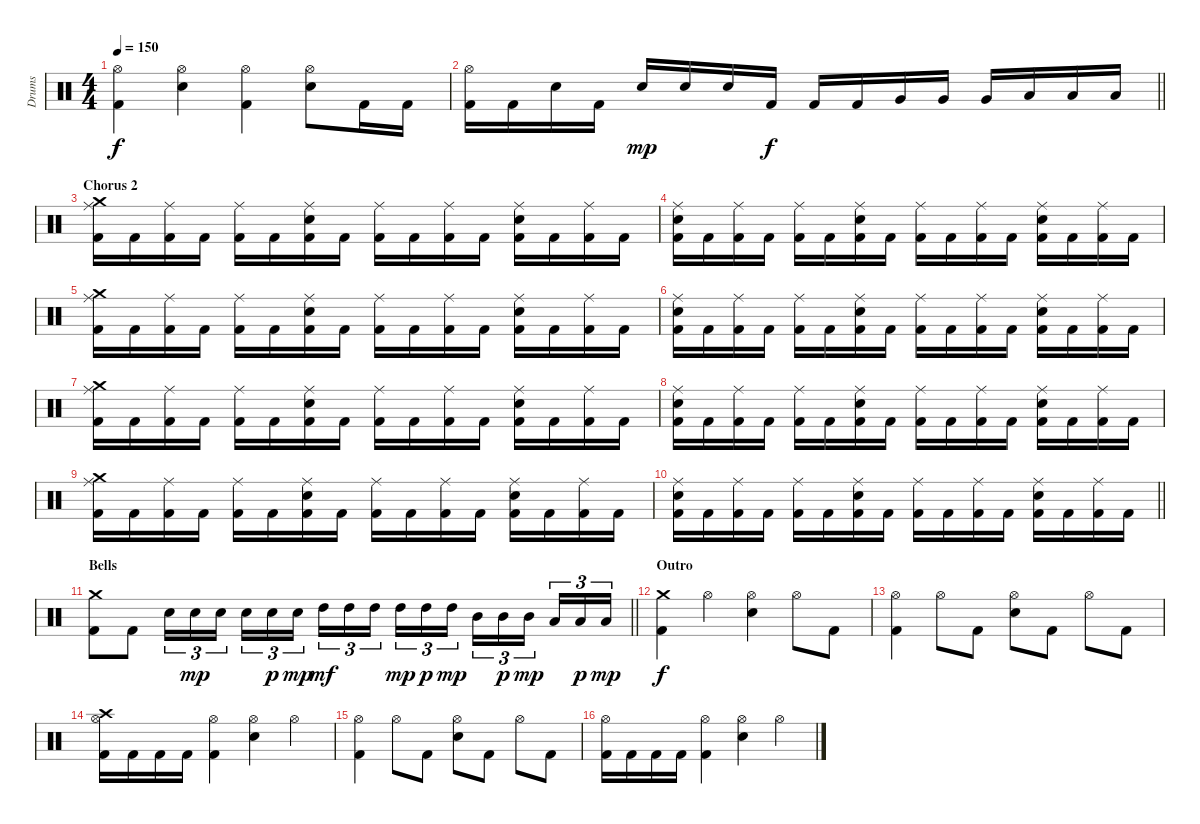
\track ("Drums" "Drums") {instrument percussion}
\staff {score}
\articulation defaults
\ts (4 4)
\tempo 150
\clef neutral
\ks c
("Hi-Hat (open)" "Kick (hit) 2").4{dy f} ("Hi-Hat (open)" "Electric Snare (hit)").4 ("Hi-Hat (open)" "Kick (hit) 2").4 ("Hi-Hat (open)" "Electric Snare (hit)").8 "Kick (hit) 2".16 "Kick (hit) 2".16 |
\barLineRight lightlight
("Hi-Hat (open)" "Kick (hit) 2").16 "Kick (hit) 2".16 "Electric Snare (hit)".16 "Kick (hit) 2".16 "Electric Snare (hit)".16{dy mp} "Electric Snare (hit)".16 "Electric Snare (hit)".16 "Kick (hit) 2".16{dy f} "Kick (hit) 2".16 "Kick (hit) 2".16 "Very Low Tom (hit)".16 "Very Low Tom (hit)".16 "Very Low Tom (hit)".16 "Low Floor Tom (hit)".16 "Low Floor Tom (hit)".16 "Low Floor Tom (hit)".16 |
\section ("" "Chorus 2")
("Crash medium (hit)" "Ride (middle)" "Kick (hit) 2").16 "Kick (hit) 2".16 ("Ride (middle)" "Kick (hit) 2").16 "Kick (hit) 2".16 ("Ride (middle)" "Kick (hit) 2").16 "Kick (hit) 2".16 ("Ride (middle)" "Electric Snare (hit)" "Kick (hit) 2").16 "Kick (hit) 2".16 ("Ride (middle)" "Kick (hit) 2").16 "Kick (hit) 2".16 ("Ride (middle)" "Kick (hit) 2").16 "Kick (hit) 2".16 ("Ride (middle)" "Electric Snare (hit)" "Kick (hit) 2").16 "Kick (hit) 2".16 ("Ride (middle)" "Kick (hit) 2").16 "Kick (hit) 2".16 |
("Ride (middle)" "Electric Snare (hit)" "Kick (hit) 2").16 "Kick (hit) 2".16 ("Ride (middle)" "Kick (hit) 2").16 "Kick (hit) 2".16 ("Ride (middle)" "Kick (hit) 2").16 "Kick (hit) 2".16 ("Ride (middle)" "Electric Snare (hit)" "Kick (hit) 2").16 "Kick (hit) 2".16 ("Ride (middle)" "Kick (hit) 2").16 "Kick (hit) 2".16 ("Ride (middle)" "Kick (hit) 2").16 "Kick (hit) 2".16 ("Ride (middle)" "Electric Snare (hit)" "Kick (hit) 2").16 "Kick (hit) 2".16 ("Ride (middle)" "Kick (hit) 2").16 "Kick (hit) 2".16 |
("Crash medium (hit)" "Ride (middle)" "Kick (hit) 2").16 "Kick (hit) 2".16 ("Ride (middle)" "Kick (hit) 2").16 "Kick (hit) 2".16 ("Ride (middle)" "Kick (hit) 2").16 "Kick (hit) 2".16 ("Ride (middle)" "Electric Snare (hit)" "Kick (hit) 2").16 "Kick (hit) 2".16 ("Ride (middle)" "Kick (hit) 2").16 "Kick (hit) 2".16 ("Ride (middle)" "Kick (hit) 2").16 "Kick (hit) 2".16 ("Ride (middle)" "Electric Snare (hit)" "Kick (hit) 2").16 "Kick (hit) 2".16 ("Ride (middle)" "Kick (hit) 2").16 "Kick (hit) 2".16 |
("Ride (middle)" "Electric Snare (hit)" "Kick (hit) 2").16 "Kick (hit) 2".16 ("Ride (middle)" "Kick (hit) 2").16 "Kick (hit) 2".16 ("Ride (middle)" "Kick (hit) 2").16 "Kick (hit) 2".16 ("Ride (middle)" "Electric Snare (hit)" "Kick (hit) 2").16 "Kick (hit) 2".16 ("Ride (middle)" "Kick (hit) 2").16 "Kick (hit) 2".16 ("Ride (middle)" "Kick (hit) 2").16 "Kick (hit) 2".16 ("Ride (middle)" "Electric Snare (hit)" "Kick (hit) 2").16 "Kick (hit) 2".16 ("Ride (middle)" "Kick (hit) 2").16 "Kick (hit) 2".16 |
("Crash medium (hit)" "Ride (middle)" "Kick (hit) 2").16 "Kick (hit) 2".16 ("Ride (middle)" "Kick (hit) 2").16 "Kick (hit) 2".16 ("Ride (middle)" "Kick (hit) 2").16 "Kick (hit) 2".16 ("Ride (middle)" "Electric Snare (hit)" "Kick (hit) 2").16 "Kick (hit) 2".16 ("Ride (middle)" "Kick (hit) 2").16 "Kick (hit) 2".16 ("Ride (middle)" "Kick (hit) 2").16 "Kick (hit) 2".16 ("Ride (middle)" "Electric Snare (hit)" "Kick (hit) 2").16 "Kick (hit) 2".16 ("Ride (middle)" "Kick (hit) 2").16 "Kick (hit) 2".16 |
("Ride (middle)" "Electric Snare (hit)" "Kick (hit) 2").16 "Kick (hit) 2".16 ("Ride (middle)" "Kick (hit) 2").16 "Kick (hit) 2".16 ("Ride (middle)" "Kick (hit) 2").16 "Kick (hit) 2".16 ("Ride (middle)" "Electric Snare (hit)" "Kick (hit) 2").16 "Kick (hit) 2".16 ("Ride (middle)" "Kick (hit) 2").16 "Kick (hit) 2".16 ("Ride (middle)" "Kick (hit) 2").16 "Kick (hit) 2".16 ("Ride (middle)" "Electric Snare (hit)" "Kick (hit) 2").16 "Kick (hit) 2".16 ("Ride (middle)" "Kick (hit) 2").16 "Kick (hit) 2".16 |
("Crash medium (hit)" "Ride (middle)" "Kick (hit) 2").16 "Kick (hit) 2".16 ("Ride (middle)" "Kick (hit) 2").16 "Kick (hit) 2".16 ("Ride (middle)" "Kick (hit) 2").16 "Kick (hit) 2".16 ("Ride (middle)" "Electric Snare (hit)" "Kick (hit) 2").16 "Kick (hit) 2".16 ("Ride (middle)" "Kick (hit) 2").16 "Kick (hit) 2".16 ("Ride (middle)" "Kick (hit) 2").16 "Kick (hit) 2".16 ("Ride (middle)" "Electric Snare (hit)" "Kick (hit) 2").16 "Kick (hit) 2".16 ("Ride (middle)" "Kick (hit) 2").16 "Kick (hit) 2".16 |
\barLineRight lightlight
("Ride (middle)" "Electric Snare (hit)" "Kick (hit) 2").16 "Kick (hit) 2".16 ("Ride (middle)" "Kick (hit) 2").16 "Kick (hit) 2".16 ("Ride (middle)" "Kick (hit) 2").16 "Kick (hit) 2".16 ("Ride (middle)" "Electric Snare (hit)" "Kick (hit) 2").16 "Kick (hit) 2".16 ("Ride (middle)" "Kick (hit) 2").16 "Kick (hit) 2".16 ("Ride (middle)" "Kick (hit) 2").16 "Kick (hit) 2".16 ("Ride (middle)" "Electric Snare (hit)" "Kick (hit) 2").16 "Kick (hit) 2".16 ("Ride (middle)" "Kick (hit) 2").16 "Kick (hit) 2".16 |
\section ("" "Bells")
\barLineRight lightlight
("Crash medium (hit)" "Kick (hit) 2").8 "Kick (hit) 2".8 "Electric Snare (hit)".16{tu (3 2)} "Electric Snare (hit)".16{tu (3 2) dy mp} "Electric Snare (hit)".16{tu (3 2) beam splitsecondary} "Electric Snare (hit)".16{tu (3 2)} "Electric Snare (hit)".16{tu (3 2) dy p} "Electric Snare (hit)".16{tu (3 2) dy mp} "High Tom (hit)".16{tu (3 2) dy mf} "High Tom (hit)".16{tu (3 2)} "High Tom (hit)".16{tu (3 2) beam splitsecondary} "High Tom (hit)".16{tu (3 2) dy mp} "High Tom (hit)".16{tu (3 2) dy p} "High Tom (hit)".16{tu (3 2) dy mp} "Mid Tom (hit)".16{tu (3 2)} "Mid Tom (hit)".16{tu (3 2) dy p} "Mid Tom (hit)".16{tu (3 2) dy mp beam splitsecondary} "Low Tom (hit)".16{tu (3 2)} "Low Tom (hit)".16{tu (3 2) dy p} "Low Tom (hit)".16{tu (3 2) dy mp} |
\section ("" "Outro")
("Crash medium (hit)" "Kick (hit) 2").4{dy f} "Hi-Hat (open)".4 ("Hi-Hat (open)" "Electric Snare (hit)").4 "Hi-Hat (open)".8 "Kick (hit) 2".8 |
("Hi-Hat (open)" "Kick (hit) 2").4 "Hi-Hat (open)".8 "Kick (hit) 2".8 ("Hi-Hat (open)" "Electric Snare (hit)").8 "Kick (hit) 2".8 "Hi-Hat (open)".8 "Kick (hit) 2".8 |
("Crash high (hit)" "Hi-Hat (open)" "Kick (hit) 2").16 "Kick (hit) 2".16 "Kick (hit) 2".16 "Kick (hit) 2".16 ("Hi-Hat (open)" "Kick (hit) 2").4 ("Hi-Hat (open)" "Electric Snare (hit)").4 "Hi-Hat (open)".4 |
("Hi-Hat (open)" "Kick (hit) 2").4 "Hi-Hat (open)".8 "Kick (hit) 2".8 ("Hi-Hat (open)" "Electric Snare (hit)").8 "Kick (hit) 2".8 "Hi-Hat (open)".8 "Kick (hit) 2".8 |
("Hi-Hat (open)" "Kick (hit) 2").16 "Kick (hit) 2".16 "Kick (hit) 2".16 "Kick (hit) 2".16 ("Hi-Hat (open)" "Kick (hit) 2").4 ("Hi-Hat (open)" "Electric Snare (hit)").4 "Hi-Hat (open)".4
